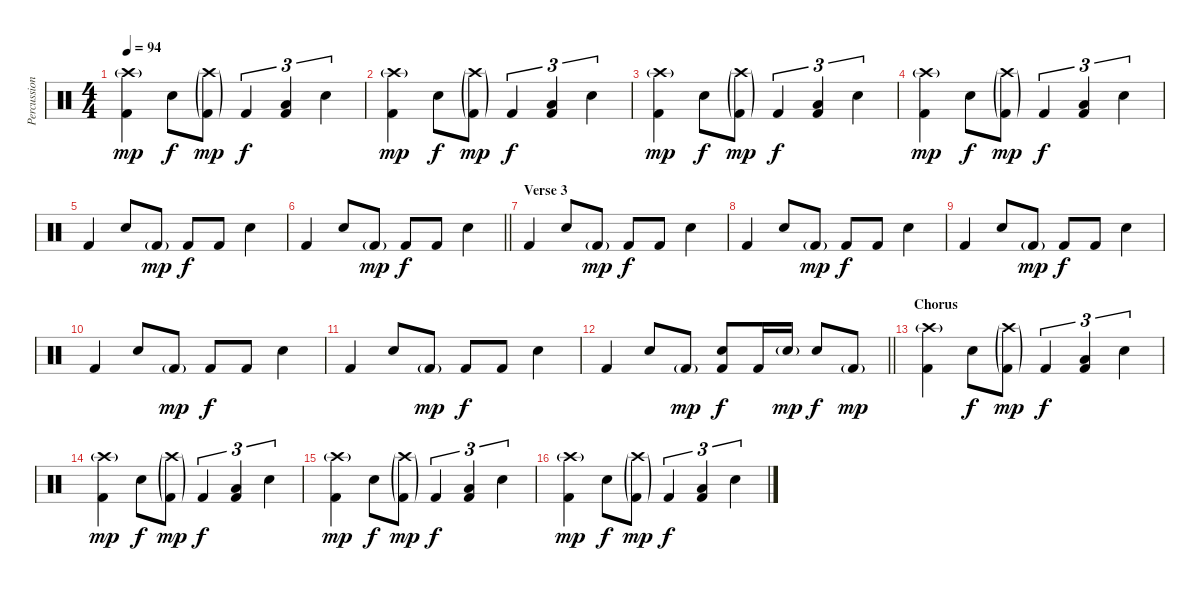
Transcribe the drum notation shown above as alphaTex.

\track ("Percussion" "Percussion") {instrument percussion}
\staff {score}
\articulation defaults
\ts (4 4)
\tempo 94
\clef neutral
\ks c
("Crash high (hit)"{g} "Kick (hit) 2").4{dy mp} "Snare (hit) 2".8{dy f} ("Crash high (hit)"{g} "Kick (hit) 2"{g}).8{dy mp} "Kick (hit) 2".4{tu (3 2) dy f} ("Low Floor Tom (hit)" "Kick (hit) 2").4{tu (3 2)} "Snare (hit) 2".4{tu (3 2)} |
("Crash high (hit)"{g} "Kick (hit) 2").4{dy mp} "Snare (hit) 2".8{dy f} ("Crash high (hit)"{g} "Kick (hit) 2"{g}).8{dy mp} "Kick (hit) 2".4{tu (3 2) dy f} ("Low Floor Tom (hit)" "Kick (hit) 2").4{tu (3 2)} "Snare (hit) 2".4{tu (3 2)} |
("Crash high (hit)"{g} "Kick (hit) 2").4{dy mp} "Snare (hit) 2".8{dy f} ("Crash high (hit)"{g} "Kick (hit) 2"{g}).8{dy mp} "Kick (hit) 2".4{tu (3 2) dy f} ("Low Floor Tom (hit)" "Kick (hit) 2").4{tu (3 2)} "Snare (hit) 2".4{tu (3 2)} |
("Crash high (hit)"{g} "Kick (hit) 2").4{dy mp} "Snare (hit) 2".8{dy f} ("Crash high (hit)"{g} "Kick (hit) 2"{g}).8{dy mp} "Kick (hit) 2".4{tu (3 2) dy f} ("Low Floor Tom (hit)" "Kick (hit) 2").4{tu (3 2)} "Snare (hit) 2".4{tu (3 2)} |
"Kick (hit) 2".4 "Snare (hit) 2".8 "Kick (hit) 2"{g}.8{dy mp} "Kick (hit) 2".8{dy f} "Kick (hit) 2".8 "Snare (hit) 2".4 |
\barLineRight lightlight "Kick (hit) 2".4 "Snare (hit) 2".8 "Kick (hit) 2"{g}.8{dy mp} "Kick (hit) 2".8{dy f} "Kick (hit) 2".8 "Snare (hit) 2".4
|
\section ("" "Verse 3")
"Kick (hit) 2".4 "Snare (hit) 2".8 "Kick (hit) 2"{g}.8{dy mp} "Kick (hit) 2".8{dy f} "Kick (hit) 2".8 "Snare (hit) 2".4 |
"Kick (hit) 2".4 "Snare (hit) 2".8 "Kick (hit) 2"{g}.8{dy mp} "Kick (hit) 2".8{dy f} "Kick (hit) 2".8 "Snare (hit) 2".4 |
"Kick (hit) 2".4 "Snare (hit) 2".8 "Kick (hit) 2"{g}.8{dy mp} "Kick (hit) 2".8{dy f} "Kick (hit) 2".8 "Snare (hit) 2".4 |
"Kick (hit) 2".4 "Snare (hit) 2".8 "Kick (hit) 2"{g}.8{dy mp} "Kick (hit) 2".8{dy f} "Kick (hit) 2".8 "Snare (hit) 2".4 |
"Kick (hit) 2".4 "Snare (hit) 2".8 "Kick (hit) 2"{g}.8{dy mp} "Kick (hit) 2".8{dy f} "Kick (hit) 2".8 "Snare (hit) 2".4 |
\barLineRight lightlight "Kick (hit) 2".4 "Snare (hit) 2".8 "Kick (hit) 2"{g}.8{dy mp}
("Snare (hit) 2" "Kick (hit) 2").8{dy f} "Kick (hit) 2".16 "Snare (hit) 2"{g}.16{dy mp} "Snare (hit) 2".8{dy f} "Kick (hit) 2"{g}.8{dy mp} |
\section ("" "Chorus")
("Crash high (hit)"{g} "Kick (hit) 2").4 "Snare (hit) 2".8{dy f} ("Crash high (hit)"{g} "Kick (hit) 2"{g}).8{dy mp} "Kick (hit) 2".4{tu (3 2) dy f} ("Low Floor Tom (hit)" "Kick (hit) 2").4{tu (3 2)} "Snare (hit) 2".4{tu (3 2)} |
("Crash high (hit)"{g} "Kick (hit) 2").4{dy mp} "Snare (hit) 2".8{dy f} ("Crash high (hit)"{g} "Kick (hit) 2"{g}).8{dy mp} "Kick (hit) 2".4{tu (3 2) dy f} ("Low Floor Tom (hit)" "Kick (hit) 2").4{tu (3 2)} "Snare (hit) 2".4{tu (3 2)} |
("Crash high (hit)"{g} "Kick (hit) 2").4{dy mp} "Snare (hit) 2".8{dy f} ("Crash high (hit)"{g} "Kick (hit) 2"{g}).8{dy mp} "Kick (hit) 2".4{tu (3 2) dy f} ("Low Floor Tom (hit)" "Kick (hit) 2").4{tu (3 2)} "Snare (hit) 2".4{tu (3 2)} |
("Crash high (hit)"{g} "Kick (hit) 2").4{dy mp} "Snare (hit) 2".8{dy f} ("Crash high (hit)"{g} "Kick (hit) 2"{g}).8{dy mp} "Kick (hit) 2".4{tu (3 2) dy f} ("Low Floor Tom (hit)" "Kick (hit) 2").4{tu (3 2)} "Snare (hit) 2".4{tu (3 2)}
